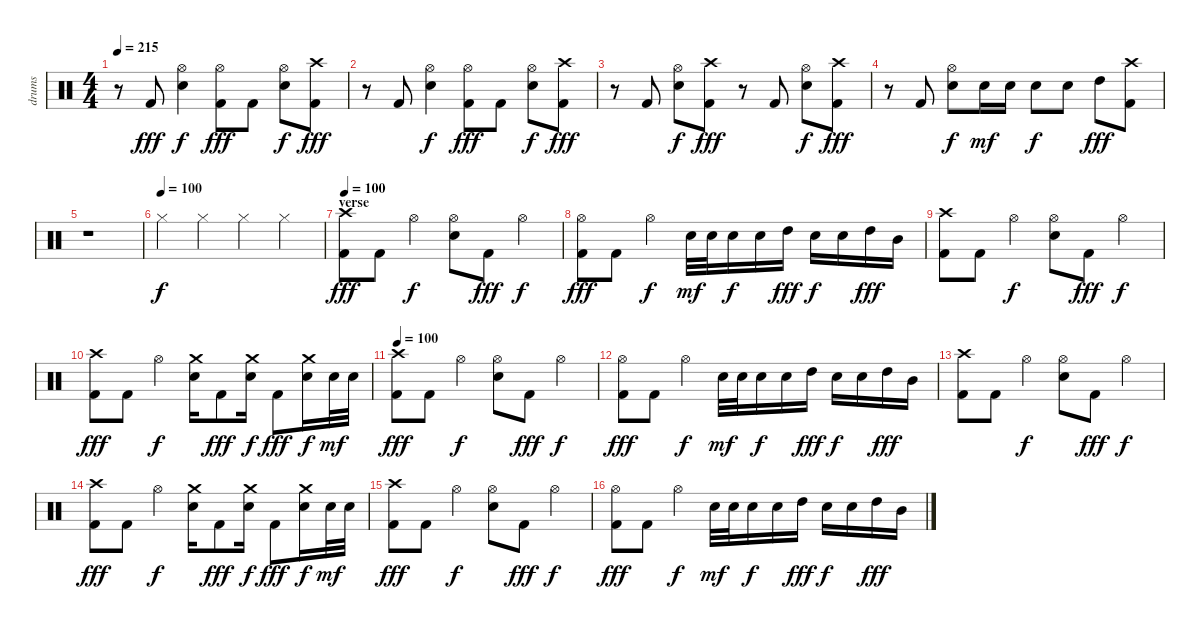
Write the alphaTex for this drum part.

\track ("drums" "drums") {instrument percussion}
\staff {score}
\articulation defaults
\ts (4 4)
\tempo 215
\clef neutral
\ks c
r.8{dy fff} "Kick (hit) 2".8 ("Hi-Hat (open)" "Snare (hit) 2").4{dy f} ("Hi-Hat (open)" "Kick (hit) 2").8{dy fff} "Kick (hit) 2".8 ("Hi-Hat (open)" "Snare (hit) 2").8{dy f} ("Crash high (hit)" "Kick (hit) 2").8{dy fff} |
r.8 "Kick (hit) 2".8 ("Hi-Hat (open)" "Snare (hit) 2").4{dy f} ("Hi-Hat (open)" "Kick (hit) 2").8{dy fff} "Kick (hit) 2".8 ("Hi-Hat (open)" "Snare (hit) 2").8{dy f} ("Crash high (hit)" "Kick (hit) 2").8{dy fff} |
r.8 "Kick (hit) 2".8 ("Hi-Hat (open)" "Snare (hit) 2").8{dy f} ("Crash high (hit)" "Kick (hit) 2").8{dy fff} r.8 "Kick (hit) 2".8 ("Hi-Hat (open)" "Snare (hit) 2").8{dy f} ("Crash high (hit)" "Kick (hit) 2").8{dy fff} |
r.8 "Kick (hit) 2".8 ("Hi-Hat (open)" "Snare (hit) 2").8{dy f} "Snare (hit) 2".16{dy mf} "Snare (hit) 2".16 "Snare (hit) 2".8{dy f} "Snare (hit) 2".8 "High Tom (hit)".8{dy fff} ("Crash high (hit)" "Kick (hit) 2").8 |
r.1 |
\tempo (100)
"Hi-Hat (closed)".4{dy f} "Hi-Hat (closed)".4 "Hi-Hat (closed)".4 "Hi-Hat (closed)".4 |
\section ("" "verse")
\tempo 100
("Crash high (hit)" "Kick (hit) 2").8{dy fff} "Kick (hit) 2".8 "Hi-Hat (open)".4{dy f} ("Hi-Hat (open)" "Snare (hit) 2").8 "Kick (hit) 2".8{dy fff} "Hi-Hat (open)".4{dy f} |
("Hi-Hat (open)" "Kick (hit) 2").8{dy fff} "Kick (hit) 2".8 "Hi-Hat (open)".4{dy f} "Snare (hit) 2".32{dy mf} "Snare (hit) 2".32 "Snare (hit) 2".16{dy f} "Snare (hit) 2".16 "High Tom (hit)".16{dy fff} "Snare (hit) 2".16{dy f} "Snare (hit) 2".16 "High Tom (hit)".16{dy fff} "Mid Tom (hit)".16 |
("Crash high (hit)" "Kick (hit) 2").8 "Kick (hit) 2".8 "Hi-Hat (open)".4{dy f} ("Hi-Hat (open)" "Snare (hit) 2").8 "Kick (hit) 2".8{dy fff} "Hi-Hat (open)".4{dy f} |
("Crash high (hit)" "Kick (hit) 2").8{dy fff} "Kick (hit) 2".8 "Hi-Hat (open)".4{dy f} ("Crash medium (hit)" "Snare (hit) 2").16 "Kick (hit) 2".8{dy fff} ("Crash medium (hit)" "Snare (hit) 2").16{dy f} "Kick (hit) 2".8{dy fff} ("Crash medium (hit)" "Snare (hit) 2").16{dy f} "Snare (hit) 2".32{dy mf} "Snare (hit) 2".32 |
\tempo 100
("Crash high (hit)" "Kick (hit) 2").8{dy fff} "Kick (hit) 2".8 "Hi-Hat (open)".4{dy f} ("Hi-Hat (open)" "Snare (hit) 2").8 "Kick (hit) 2".8{dy fff} "Hi-Hat (open)".4{dy f} |
("Hi-Hat (open)" "Kick (hit) 2").8{dy fff} "Kick (hit) 2".8 "Hi-Hat (open)".4{dy f} "Snare (hit) 2".32{dy mf} "Snare (hit) 2".32 "Snare (hit) 2".16{dy f} "Snare (hit) 2".16 "High Tom (hit)".16{dy fff} "Snare (hit) 2".16{dy f} "Snare (hit) 2".16 "High Tom (hit)".16{dy fff} "Mid Tom (hit)".16 |
("Crash high (hit)" "Kick (hit) 2").8 "Kick (hit) 2".8 "Hi-Hat (open)".4{dy f} ("Hi-Hat (open)" "Snare (hit) 2").8 "Kick (hit) 2".8{dy fff} "Hi-Hat (open)".4{dy f} |
("Crash high (hit)" "Kick (hit) 2").8{dy fff} "Kick (hit) 2".8 "Hi-Hat (open)".4{dy f} ("Crash medium (hit)" "Snare (hit) 2").16 "Kick (hit) 2".8{dy fff} ("Crash medium (hit)" "Snare (hit) 2").16{dy f} "Kick (hit) 2".8{dy fff} ("Crash medium (hit)" "Snare (hit) 2").16{dy f} "Snare (hit) 2".32{dy mf} "Snare (hit) 2".32 |
("Crash high (hit)" "Kick (hit) 2").8{dy fff} "Kick (hit) 2".8 "Hi-Hat (open)".4{dy f} ("Hi-Hat (open)" "Snare (hit) 2").8 "Kick (hit) 2".8{dy fff} "Hi-Hat (open)".4{dy f} |
("Hi-Hat (open)" "Kick (hit) 2").8{dy fff} "Kick (hit) 2".8 "Hi-Hat (open)".4{dy f} "Snare (hit) 2".32{dy mf} "Snare (hit) 2".32 "Snare (hit) 2".16{dy f} "Snare (hit) 2".16 "High Tom (hit)".16{dy fff} "Snare (hit) 2".16{dy f} "Snare (hit) 2".16 "High Tom (hit)".16{dy fff} "Mid Tom (hit)".16
